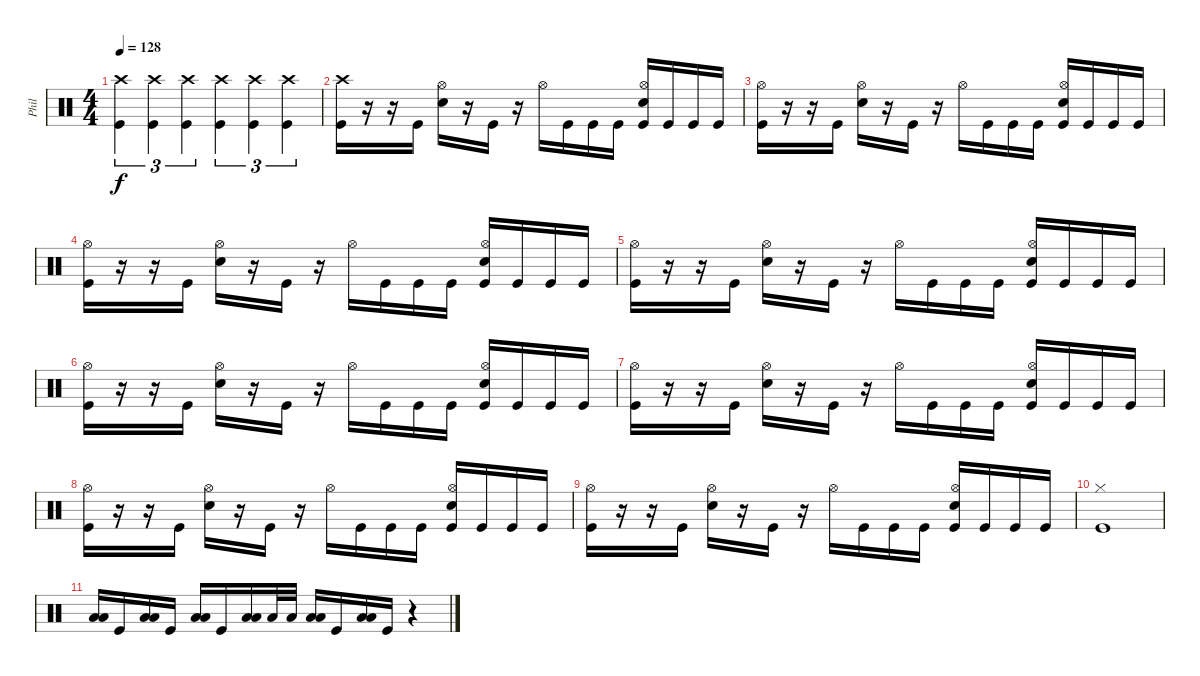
\track ("Phil" "Phil") {instrument percussion}
\staff {score}
\articulation defaults
\ts (4 4)
\tempo 128
\clef neutral
\ks c
("Crash high (hit)" "Kick (hit)").4{tu (3 2) dy f} ("Crash high (hit)" "Kick (hit)").4{tu (3 2)} ("Crash high (hit)" "Kick (hit)").4{tu (3 2)} ("Crash high (hit)" "Kick (hit)").4{tu (3 2)} ("Crash high (hit)" "Kick (hit)").4{tu (3 2)} ("Crash high (hit)" "Kick (hit)").4{tu (3 2)} |
("Crash high (hit)" "Kick (hit)").16 r.16 r.16 "Kick (hit)".16 ("Hi-Hat (open)" "Electric Snare (hit)").16 r.16 "Kick (hit)".16 r.16 "Hi-Hat (open)".16 "Kick (hit)".16 "Kick (hit)".16 "Kick (hit)".16 ("Hi-Hat (open)" "Electric Snare (hit)" "Kick (hit)").16 "Kick (hit)".16 "Kick (hit)".16 "Kick (hit)".16 |
("Hi-Hat (open)" "Kick (hit)").16 r.16 r.16 "Kick (hit)".16 ("Hi-Hat (open)" "Electric Snare (hit)").16 r.16 "Kick (hit)".16 r.16 "Hi-Hat (open)".16 "Kick (hit)".16 "Kick (hit)".16 "Kick (hit)".16 ("Hi-Hat (open)" "Electric Snare (hit)" "Kick (hit)").16 "Kick (hit)".16 "Kick (hit)".16 "Kick (hit)".16 |
("Hi-Hat (open)" "Kick (hit)").16 r.16 r.16 "Kick (hit)".16 ("Hi-Hat (open)" "Electric Snare (hit)").16 r.16 "Kick (hit)".16 r.16 "Hi-Hat (open)".16 "Kick (hit)".16 "Kick (hit)".16 "Kick (hit)".16 ("Hi-Hat (open)" "Electric Snare (hit)" "Kick (hit)").16 "Kick (hit)".16 "Kick (hit)".16 "Kick (hit)".16 |
("Hi-Hat (open)" "Kick (hit)").16 r.16 r.16 "Kick (hit)".16 ("Hi-Hat (open)" "Electric Snare (hit)").16 r.16 "Kick (hit)".16 r.16 "Hi-Hat (open)".16 "Kick (hit)".16 "Kick (hit)".16 "Kick (hit)".16 ("Hi-Hat (open)" "Electric Snare (hit)" "Kick (hit)").16 "Kick (hit)".16 "Kick (hit)".16 "Kick (hit)".16 |
("Hi-Hat (open)" "Kick (hit)").16 r.16 r.16 "Kick (hit)".16 ("Hi-Hat (open)" "Electric Snare (hit)").16 r.16 "Kick (hit)".16 r.16 "Hi-Hat (open)".16 "Kick (hit)".16 "Kick (hit)".16 "Kick (hit)".16 ("Hi-Hat (open)" "Electric Snare (hit)" "Kick (hit)").16 "Kick (hit)".16 "Kick (hit)".16 "Kick (hit)".16 |
("Hi-Hat (open)" "Kick (hit)").16 r.16 r.16 "Kick (hit)".16 ("Hi-Hat (open)" "Electric Snare (hit)").16 r.16 "Kick (hit)".16 r.16 "Hi-Hat (open)".16 "Kick (hit)".16 "Kick (hit)".16 "Kick (hit)".16 ("Hi-Hat (open)" "Electric Snare (hit)" "Kick (hit)").16 "Kick (hit)".16 "Kick (hit)".16 "Kick (hit)".16 |
("Hi-Hat (open)" "Kick (hit)").16 r.16 r.16 "Kick (hit)".16 ("Hi-Hat (open)" "Electric Snare (hit)").16 r.16 "Kick (hit)".16 r.16 "Hi-Hat (open)".16 "Kick (hit)".16 "Kick (hit)".16 "Kick (hit)".16 ("Hi-Hat (open)" "Electric Snare (hit)" "Kick (hit)").16 "Kick (hit)".16 "Kick (hit)".16 "Kick (hit)".16 |
("Hi-Hat (open)" "Kick (hit)").16 r.16 r.16 "Kick (hit)".16 ("Hi-Hat (open)" "Electric Snare (hit)").16 r.16 "Kick (hit)".16 r.16 "Hi-Hat (open)".16 "Kick (hit)".16 "Kick (hit)".16 "Kick (hit)".16 ("Hi-Hat (open)" "Electric Snare (hit)" "Kick (hit)").16 "Kick (hit)".16 "Kick (hit)".16 "Kick (hit)".16 |
("Hi-Hat (closed)" "Kick (hit)").1 |
("Low Floor Tom (hit)" "Low Tom (hit)").16 "Kick (hit)".16 ("Low Floor Tom (hit)" "Low Tom (hit)").16 "Kick (hit)".16 ("Low Floor Tom (hit)" "Low Tom (hit)").16 "Kick (hit)".16 ("Low Floor Tom (hit)" "Low Tom (hit)").16 "Low Floor Tom (hit)".32 "Low Floor Tom (hit)".32 ("Low Floor Tom (hit)" "Low Tom (hit)").16 "Kick (hit)".16 ("Low Floor Tom (hit)" "Low Tom (hit)").16 "Kick (hit)".16 r.4
